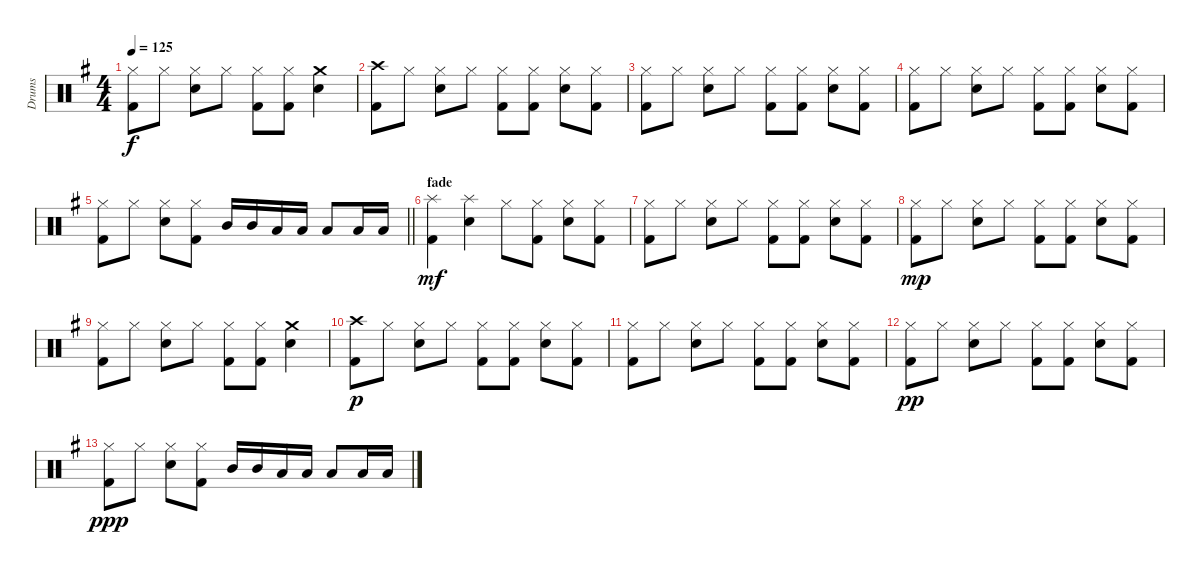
\track ("Drums" "Drums") {instrument percussion}
\staff {score}
\articulation defaults
\ts (4 4)
\tempo 125
\clef neutral
\ks eminor
("Hi-Hat (closed)" "Kick (hit) 2").8{dy f} "Hi-Hat (closed)".8 ("Hi-Hat (closed)" "Electric Snare (hit)").8 "Hi-Hat (closed)".8 ("Hi-Hat (closed)" "Kick (hit) 2").8 ("Hi-Hat (closed)" "Kick (hit) 2").8 ("Crash medium (hit)" "Electric Snare (hit)").4 |
("Crash high (hit)" "Kick (hit) 2").8 "Hi-Hat (closed)".8 ("Hi-Hat (closed)" "Electric Snare (hit)").8 "Hi-Hat (closed)".8 ("Hi-Hat (closed)" "Kick (hit) 2").8 ("Hi-Hat (closed)" "Kick (hit) 2").8 ("Hi-Hat (closed)" "Electric Snare (hit)").8 ("Hi-Hat (closed)" "Kick (hit) 2").8 |
("Hi-Hat (closed)" "Kick (hit) 2").8 "Hi-Hat (closed)".8 ("Hi-Hat (closed)" "Electric Snare (hit)").8 "Hi-Hat (closed)".8 ("Hi-Hat (closed)" "Kick (hit) 2").8 ("Hi-Hat (closed)" "Kick (hit) 2").8 ("Hi-Hat (closed)" "Electric Snare (hit)").8 ("Hi-Hat (closed)" "Kick (hit) 2").8 |
("Hi-Hat (closed)" "Kick (hit) 2").8 "Hi-Hat (closed)".8 ("Hi-Hat (closed)" "Electric Snare (hit)").8 "Hi-Hat (closed)".8 ("Hi-Hat (closed)" "Kick (hit) 2").8 ("Hi-Hat (closed)" "Kick (hit) 2").8 ("Hi-Hat (closed)" "Electric Snare (hit)").8 ("Hi-Hat (closed)" "Kick (hit) 2").8 |
\barLineRight lightlight
("Hi-Hat (closed)" "Kick (hit) 2").8 "Hi-Hat (closed)".8 ("Hi-Hat (closed)" "Electric Snare (hit)").8 ("Hi-Hat (closed)" "Kick (hit) 2").8 "Mid Tom (hit)".16 "Mid Tom (hit)".16 "Low Tom (hit)".16 "Low Tom (hit)".16 "Low Tom (hit)".8 "Low Tom (hit)".16 "Low Tom (hit)".16 |
\section ("" "fade")
("Splash (hit)" "Kick (hit) 2").4{dy mf} ("Splash (hit)" "Electric Snare (hit)").4 "Hi-Hat (closed)".8 ("Hi-Hat (closed)" "Kick (hit) 2").8 ("Hi-Hat (closed)" "Electric Snare (hit)").8 ("Hi-Hat (closed)" "Kick (hit) 2").8 |
("Hi-Hat (closed)" "Kick (hit) 2").8 "Hi-Hat (closed)".8 ("Hi-Hat (closed)" "Electric Snare (hit)").8 "Hi-Hat (closed)".8 ("Hi-Hat (closed)" "Kick (hit) 2").8 ("Hi-Hat (closed)" "Kick (hit) 2").8 ("Hi-Hat (closed)" "Electric Snare (hit)").8 ("Hi-Hat (closed)" "Kick (hit) 2").8 |
("Hi-Hat (closed)" "Kick (hit) 2").8{dy mp} "Hi-Hat (closed)".8 ("Hi-Hat (closed)" "Electric Snare (hit)").8 "Hi-Hat (closed)".8 ("Hi-Hat (closed)" "Kick (hit) 2").8 ("Hi-Hat (closed)" "Kick (hit) 2").8 ("Hi-Hat (closed)" "Electric Snare (hit)").8 ("Hi-Hat (closed)" "Kick (hit) 2").8 |
("Hi-Hat (closed)" "Kick (hit) 2").8 "Hi-Hat (closed)".8 ("Hi-Hat (closed)" "Electric Snare (hit)").8 "Hi-Hat (closed)".8 ("Hi-Hat (closed)" "Kick (hit) 2").8 ("Hi-Hat (closed)" "Kick (hit) 2").8 ("Crash medium (hit)" "Electric Snare (hit)").4 |
("Crash high (hit)" "Kick (hit) 2").8{dy p} "Hi-Hat (closed)".8 ("Hi-Hat (closed)" "Electric Snare (hit)").8 "Hi-Hat (closed)".8 ("Hi-Hat (closed)" "Kick (hit) 2").8 ("Hi-Hat (closed)" "Kick (hit) 2").8 ("Hi-Hat (closed)" "Electric Snare (hit)").8 ("Hi-Hat (closed)" "Kick (hit) 2").8 |
("Hi-Hat (closed)" "Kick (hit) 2").8 "Hi-Hat (closed)".8 ("Hi-Hat (closed)" "Electric Snare (hit)").8 "Hi-Hat (closed)".8 ("Hi-Hat (closed)" "Kick (hit) 2").8 ("Hi-Hat (closed)" "Kick (hit) 2").8 ("Hi-Hat (closed)" "Electric Snare (hit)").8 ("Hi-Hat (closed)" "Kick (hit) 2").8 |
("Hi-Hat (closed)" "Kick (hit) 2").8{dy pp} "Hi-Hat (closed)".8 ("Hi-Hat (closed)" "Electric Snare (hit)").8 "Hi-Hat (closed)".8 ("Hi-Hat (closed)" "Kick (hit) 2").8 ("Hi-Hat (closed)" "Kick (hit) 2").8 ("Hi-Hat (closed)" "Electric Snare (hit)").8 ("Hi-Hat (closed)" "Kick (hit) 2").8 |
("Hi-Hat (closed)" "Kick (hit) 2").8{dy ppp} "Hi-Hat (closed)".8 ("Hi-Hat (closed)" "Electric Snare (hit)").8 ("Hi-Hat (closed)" "Kick (hit) 2").8 "Mid Tom (hit)".16 "Mid Tom (hit)".16 "Low Tom (hit)".16 "Low Tom (hit)".16 "Low Tom (hit)".8 "Low Tom (hit)".16 "Low Tom (hit)".16
